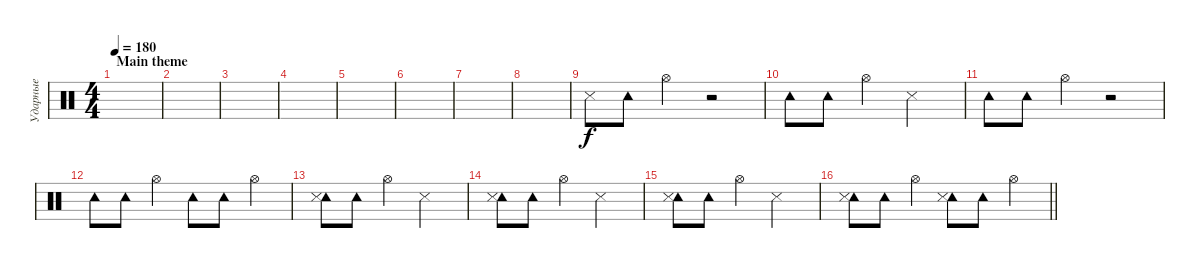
\track ("Ударные" "Ударные") {instrument percussion}
\staff {score}
\articulation defaults
\ts (4 4)
\section ("" "Main theme")
\tempo 180
\clef neutral
\ks c
|
|
|
|
|
|
|
|
"Snare (side stick) 3".8{volume 8} "Tambourine (hit)".8 "Hi-Hat (open)".4 r.2 |
"Tambourine (hit)".8{volume 8} "Tambourine (hit)".8 "Hi-Hat (open)".4 "Snare (side stick) 3".2 |
"Tambourine (hit)".8{volume 8} "Tambourine (hit)".8 "Hi-Hat (open)".4 r.2 |
"Tambourine (hit)".8{volume 8} "Tambourine (hit)".8 "Hi-Hat (open)".4 "Tambourine (hit)".8{volume 8} "Tambourine (hit)".8 "Hi-Hat (open)".4 |
("Tambourine (hit)" "Snare (side stick) 3").8{volume 8} "Tambourine (hit)".8 "Hi-Hat (open)".4 "Snare (side stick) 3".2 |
("Tambourine (hit)" "Snare (side stick) 3").8{volume 8} "Tambourine (hit)".8 "Hi-Hat (open)".4 "Snare (side stick) 3".2 |
("Tambourine (hit)" "Snare (side stick) 3").8{volume 8} "Tambourine (hit)".8 "Hi-Hat (open)".4 "Snare (side stick) 3".2 |
\barLineRight lightlight
("Tambourine (hit)" "Snare (side stick) 3").8{volume 8} "Tambourine (hit)".8 "Hi-Hat (open)".4 ("Tambourine (hit)" "Snare (side stick) 3").8{volume 8} "Tambourine (hit)".8 "Hi-Hat (open)".4
